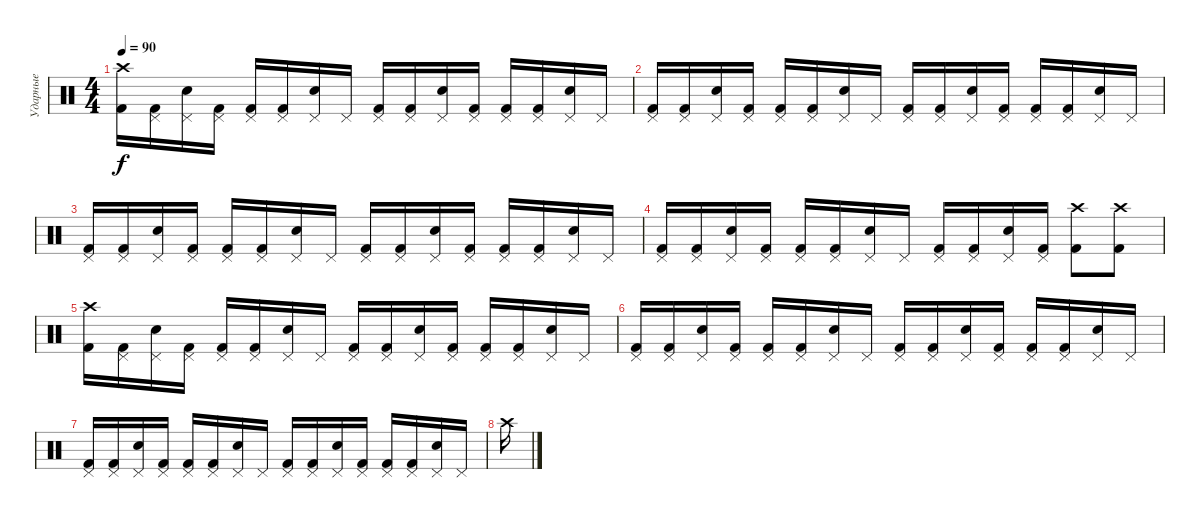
\track ("Ударные" "Ударные") {instrument percussion}
\staff {score}
\articulation defaults
\ts (4 4)
\tempo 90
\clef neutral
\ks c
("Crash high (hit)" "Kick (hit) 2").16{dy f} ("Pedal Hi-Hat (hit)" "Kick (hit) 2").16 ("Pedal Hi-Hat (hit)" "Snare (hit) 2").16 ("Pedal Hi-Hat (hit)" "Kick (hit) 2").16 ("Pedal Hi-Hat (hit)" "Kick (hit) 2").16 ("Pedal Hi-Hat (hit)" "Kick (hit) 2").16 ("Pedal Hi-Hat (hit)" "Snare (hit) 2").16 "Pedal Hi-Hat (hit)".16 ("Pedal Hi-Hat (hit)" "Kick (hit) 2").16 ("Pedal Hi-Hat (hit)" "Kick (hit) 2").16 ("Pedal Hi-Hat (hit)" "Snare (hit) 2").16 ("Pedal Hi-Hat (hit)" "Kick (hit) 2").16 ("Pedal Hi-Hat (hit)" "Kick (hit) 2").16 ("Pedal Hi-Hat (hit)" "Kick (hit) 2").16 ("Pedal Hi-Hat (hit)" "Snare (hit) 2").16 "Pedal Hi-Hat (hit)".16 |
("Pedal Hi-Hat (hit)" "Kick (hit) 2").16 ("Pedal Hi-Hat (hit)" "Kick (hit) 2").16 ("Pedal Hi-Hat (hit)" "Snare (hit) 2").16 ("Pedal Hi-Hat (hit)" "Kick (hit) 2").16 ("Pedal Hi-Hat (hit)" "Kick (hit) 2").16 ("Pedal Hi-Hat (hit)" "Kick (hit) 2").16 ("Pedal Hi-Hat (hit)" "Snare (hit) 2").16 "Pedal Hi-Hat (hit)".16 ("Pedal Hi-Hat (hit)" "Kick (hit) 2").16 ("Pedal Hi-Hat (hit)" "Kick (hit) 2").16 ("Pedal Hi-Hat (hit)" "Snare (hit) 2").16 ("Pedal Hi-Hat (hit)" "Kick (hit) 2").16 ("Pedal Hi-Hat (hit)" "Kick (hit) 2").16 ("Pedal Hi-Hat (hit)" "Kick (hit) 2").16 ("Pedal Hi-Hat (hit)" "Snare (hit) 2").16 "Pedal Hi-Hat (hit)".16 |
("Pedal Hi-Hat (hit)" "Kick (hit) 2").16 ("Pedal Hi-Hat (hit)" "Kick (hit) 2").16 ("Pedal Hi-Hat (hit)" "Snare (hit) 2").16 ("Pedal Hi-Hat (hit)" "Kick (hit) 2").16 ("Pedal Hi-Hat (hit)" "Kick (hit) 2").16 ("Pedal Hi-Hat (hit)" "Kick (hit) 2").16 ("Pedal Hi-Hat (hit)" "Snare (hit) 2").16 "Pedal Hi-Hat (hit)".16 ("Pedal Hi-Hat (hit)" "Kick (hit) 2").16 ("Pedal Hi-Hat (hit)" "Kick (hit) 2").16 ("Pedal Hi-Hat (hit)" "Snare (hit) 2").16 ("Pedal Hi-Hat (hit)" "Kick (hit) 2").16 ("Pedal Hi-Hat (hit)" "Kick (hit) 2").16 ("Pedal Hi-Hat (hit)" "Kick (hit) 2").16 ("Pedal Hi-Hat (hit)" "Snare (hit) 2").16 "Pedal Hi-Hat (hit)".16 |
("Pedal Hi-Hat (hit)" "Kick (hit) 2").16 ("Pedal Hi-Hat (hit)" "Kick (hit) 2").16 ("Pedal Hi-Hat (hit)" "Snare (hit) 2").16 ("Pedal Hi-Hat (hit)" "Kick (hit) 2").16 ("Pedal Hi-Hat (hit)" "Kick (hit) 2").16 ("Pedal Hi-Hat (hit)" "Kick (hit) 2").16 ("Pedal Hi-Hat (hit)" "Snare (hit) 2").16 "Pedal Hi-Hat (hit)".16 ("Pedal Hi-Hat (hit)" "Kick (hit) 2").16 ("Pedal Hi-Hat (hit)" "Kick (hit) 2").16 ("Pedal Hi-Hat (hit)" "Snare (hit) 2").16 ("Pedal Hi-Hat (hit)" "Kick (hit) 2").16 ("Crash high (hit)" "Kick (hit) 2").8 ("Crash high (hit)" "Kick (hit) 2").8 |
("Crash high (hit)" "Kick (hit) 2").16 ("Pedal Hi-Hat (hit)" "Kick (hit) 2").16 ("Pedal Hi-Hat (hit)" "Snare (hit) 2").16 ("Pedal Hi-Hat (hit)" "Kick (hit) 2").16 ("Pedal Hi-Hat (hit)" "Kick (hit) 2").16 ("Pedal Hi-Hat (hit)" "Kick (hit) 2").16 ("Pedal Hi-Hat (hit)" "Snare (hit) 2").16 "Pedal Hi-Hat (hit)".16 ("Pedal Hi-Hat (hit)" "Kick (hit) 2").16 ("Pedal Hi-Hat (hit)" "Kick (hit) 2").16 ("Pedal Hi-Hat (hit)" "Snare (hit) 2").16 ("Pedal Hi-Hat (hit)" "Kick (hit) 2").16 ("Pedal Hi-Hat (hit)" "Kick (hit) 2").16 ("Pedal Hi-Hat (hit)" "Kick (hit) 2").16 ("Pedal Hi-Hat (hit)" "Snare (hit) 2").16 "Pedal Hi-Hat (hit)".16 |
("Pedal Hi-Hat (hit)" "Kick (hit) 2").16 ("Pedal Hi-Hat (hit)" "Kick (hit) 2").16 ("Pedal Hi-Hat (hit)" "Snare (hit) 2").16 ("Pedal Hi-Hat (hit)" "Kick (hit) 2").16 ("Pedal Hi-Hat (hit)" "Kick (hit) 2").16 ("Pedal Hi-Hat (hit)" "Kick (hit) 2").16 ("Pedal Hi-Hat (hit)" "Snare (hit) 2").16 "Pedal Hi-Hat (hit)".16 ("Pedal Hi-Hat (hit)" "Kick (hit) 2").16 ("Pedal Hi-Hat (hit)" "Kick (hit) 2").16 ("Pedal Hi-Hat (hit)" "Snare (hit) 2").16 ("Pedal Hi-Hat (hit)" "Kick (hit) 2").16 ("Pedal Hi-Hat (hit)" "Kick (hit) 2").16 ("Pedal Hi-Hat (hit)" "Kick (hit) 2").16 ("Pedal Hi-Hat (hit)" "Snare (hit) 2").16 "Pedal Hi-Hat (hit)".16 |
("Pedal Hi-Hat (hit)" "Kick (hit) 2").16 ("Pedal Hi-Hat (hit)" "Kick (hit) 2").16 ("Pedal Hi-Hat (hit)" "Snare (hit) 2").16 ("Pedal Hi-Hat (hit)" "Kick (hit) 2").16 ("Pedal Hi-Hat (hit)" "Kick (hit) 2").16 ("Pedal Hi-Hat (hit)" "Kick (hit) 2").16 ("Pedal Hi-Hat (hit)" "Snare (hit) 2").16 "Pedal Hi-Hat (hit)".16 ("Pedal Hi-Hat (hit)" "Kick (hit) 2").16 ("Pedal Hi-Hat (hit)" "Kick (hit) 2").16 ("Pedal Hi-Hat (hit)" "Snare (hit) 2").16 ("Pedal Hi-Hat (hit)" "Kick (hit) 2").16 ("Pedal Hi-Hat (hit)" "Kick (hit) 2").16 ("Pedal Hi-Hat (hit)" "Kick (hit) 2").16 ("Pedal Hi-Hat (hit)" "Snare (hit) 2").16 "Pedal Hi-Hat (hit)".16 |
"Crash high (hit)".16
